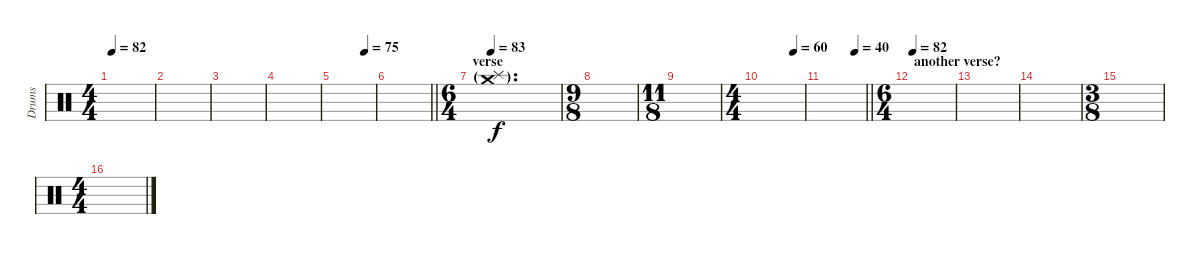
\track ("Drums" "Drums") {instrument percussion}
\staff {score}
\articulation defaults
\ts (4 4)
\tempo 82
\clef neutral
\ks c
|
|
|
|
\tempo (75 0.75)
|
\barLineRight lightlight
|
\ts (6 4)
\section ("" "verse")
\tempo 83
("Crash medium (hit)"{g} "Splash (hit)"{g}).1{d} |
\ts (9 8)
|
\ts (11 8)
|
\ts (4 4)
\tempo (60 0.75)
|
\tempo (40 0.75)
\barLineRight lightlight
|
\ts (6 4)
\section ("" "another verse?")
\tempo 82
|
|
|
\ts (3 8)
|
\ts (4 4)
